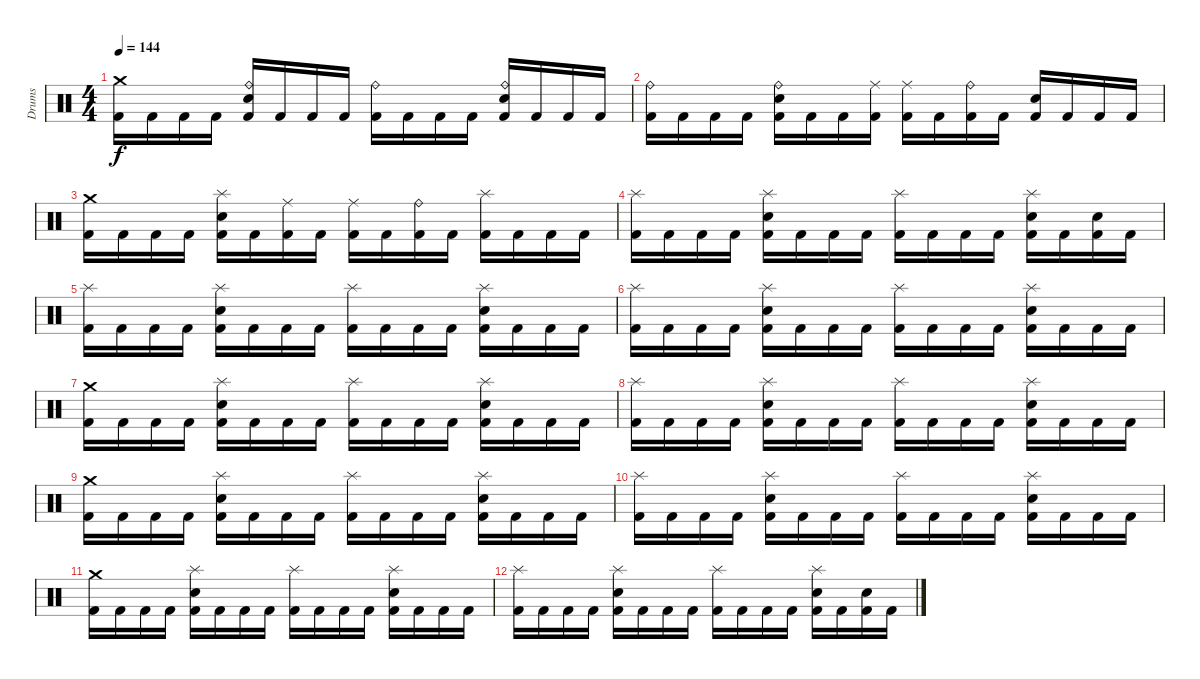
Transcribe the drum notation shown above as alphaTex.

\track ("Drums" "Drums") {instrument percussion}
\staff {score}
\articulation defaults
\ts (4 4)
\tempo 144
\clef neutral
\ks c
("Crash medium (hit)" "Kick (hit) 2").16{dy f} "Kick (hit) 2".16 "Kick (hit) 2".16 "Kick (hit) 2".16 ("Ride (bell)" "Snare (hit) 2" "Kick (hit) 2").16 "Kick (hit) 2".16 "Kick (hit) 2".16 "Kick (hit) 2".16 ("Ride (bell)" "Kick (hit) 2").16 "Kick (hit) 2".16 "Kick (hit) 2".16 "Kick (hit) 2".16 ("Ride (bell)" "Snare (hit) 2" "Kick (hit) 2").16 "Kick (hit) 2".16 "Kick (hit) 2".16 "Kick (hit) 2".16 |
("Ride (bell)" "Kick (hit) 2").16 "Kick (hit) 2".16 "Kick (hit) 2".16 "Kick (hit) 2".16 ("Ride (bell)" "Snare (hit) 2" "Kick (hit) 2").16 "Kick (hit) 2".16 "Kick (hit) 2".16 ("Ride (middle)" "Kick (hit) 2").16 ("Ride (middle)" "Kick (hit) 2").16 "Kick (hit) 2".16 ("Ride (bell)" "Kick (hit) 2").16 "Kick (hit) 2".16 ("Snare (hit) 2" "Kick (hit) 2").16 "Kick (hit) 2".16 "Kick (hit) 2".16 "Kick (hit) 2".16 |
("Crash medium (hit)" "Kick (hit) 2").16 "Kick (hit) 2".16 "Kick (hit) 2".16 "Kick (hit) 2".16 ("Splash (hit)" "Snare (hit) 2" "Kick (hit) 2").16 "Kick (hit) 2".16 ("Ride (middle)" "Kick (hit) 2").16 "Kick (hit) 2".16 ("Ride (middle)" "Kick (hit) 2").16 "Kick (hit) 2".16 ("Ride (bell)" "Kick (hit) 2").16 "Kick (hit) 2".16 ("Splash (hit)" "Kick (hit) 2").16 "Kick (hit) 2".16 "Kick (hit) 2".16 "Kick (hit) 2".16 |
("Splash (hit)" "Kick (hit) 2").16 "Kick (hit) 2".16 "Kick (hit) 2".16 "Kick (hit) 2".16 ("Splash (hit)" "Snare (hit) 2" "Kick (hit) 2").16 "Kick (hit) 2".16 "Kick (hit) 2".16 "Kick (hit) 2".16 ("Splash (hit)" "Kick (hit) 2").16 "Kick (hit) 2".16 "Kick (hit) 2".16 "Kick (hit) 2".16 ("Splash (hit)" "Snare (hit) 2" "Kick (hit) 2").16 "Kick (hit) 2".16 ("Snare (hit) 2" "Kick (hit) 2").16 "Kick (hit) 2".16 |
("Splash (hit)" "Kick (hit) 2").16 "Kick (hit) 2".16 "Kick (hit) 2".16 "Kick (hit) 2".16 ("Splash (hit)" "Snare (hit) 2" "Kick (hit) 2").16 "Kick (hit) 2".16 "Kick (hit) 2".16 "Kick (hit) 2".16 ("Splash (hit)" "Kick (hit) 2").16 "Kick (hit) 2".16 "Kick (hit) 2".16 "Kick (hit) 2".16 ("Splash (hit)" "Snare (hit) 2" "Kick (hit) 2").16 "Kick (hit) 2".16 "Kick (hit) 2".16 "Kick (hit) 2".16 |
("Splash (hit)" "Kick (hit) 2").16 "Kick (hit) 2".16 "Kick (hit) 2".16 "Kick (hit) 2".16 ("Splash (hit)" "Snare (hit) 2" "Kick (hit) 2").16 "Kick (hit) 2".16 "Kick (hit) 2".16 "Kick (hit) 2".16 ("Splash (hit)" "Kick (hit) 2").16 "Kick (hit) 2".16 "Kick (hit) 2".16 "Kick (hit) 2".16 ("Splash (hit)" "Snare (hit) 2" "Kick (hit) 2").16 "Kick (hit) 2".16 "Kick (hit) 2".16 "Kick (hit) 2".16 |
("Crash medium (hit)" "Kick (hit) 2").16 "Kick (hit) 2".16 "Kick (hit) 2".16 "Kick (hit) 2".16 ("Splash (hit)" "Snare (hit) 2" "Kick (hit) 2").16 "Kick (hit) 2".16 "Kick (hit) 2".16 "Kick (hit) 2".16 ("Splash (hit)" "Kick (hit) 2").16 "Kick (hit) 2".16 "Kick (hit) 2".16 "Kick (hit) 2".16 ("Splash (hit)" "Snare (hit) 2" "Kick (hit) 2").16 "Kick (hit) 2".16 "Kick (hit) 2".16 "Kick (hit) 2".16 |
("Splash (hit)" "Kick (hit) 2").16 "Kick (hit) 2".16 "Kick (hit) 2".16 "Kick (hit) 2".16 ("Splash (hit)" "Snare (hit) 2" "Kick (hit) 2").16 "Kick (hit) 2".16 "Kick (hit) 2".16 "Kick (hit) 2".16 ("Splash (hit)" "Kick (hit) 2").16 "Kick (hit) 2".16 "Kick (hit) 2".16 "Kick (hit) 2".16 ("Splash (hit)" "Snare (hit) 2" "Kick (hit) 2").16 "Kick (hit) 2".16 "Kick (hit) 2".16 "Kick (hit) 2".16 |
("Crash medium (hit)" "Kick (hit) 2").16 "Kick (hit) 2".16 "Kick (hit) 2".16 "Kick (hit) 2".16 ("Splash (hit)" "Snare (hit) 2" "Kick (hit) 2").16 "Kick (hit) 2".16 "Kick (hit) 2".16 "Kick (hit) 2".16 ("Splash (hit)" "Kick (hit) 2").16 "Kick (hit) 2".16 "Kick (hit) 2".16 "Kick (hit) 2".16 ("Splash (hit)" "Snare (hit) 2" "Kick (hit) 2").16 "Kick (hit) 2".16 "Kick (hit) 2".16 "Kick (hit) 2".16 |
("Splash (hit)" "Kick (hit) 2").16 "Kick (hit) 2".16 "Kick (hit) 2".16 "Kick (hit) 2".16 ("Splash (hit)" "Snare (hit) 2" "Kick (hit) 2").16 "Kick (hit) 2".16 "Kick (hit) 2".16 "Kick (hit) 2".16 ("Splash (hit)" "Kick (hit) 2").16 "Kick (hit) 2".16 "Kick (hit) 2".16 "Kick (hit) 2".16 ("Splash (hit)" "Snare (hit) 2" "Kick (hit) 2").16 "Kick (hit) 2".16 "Kick (hit) 2".16 "Kick (hit) 2".16 |
("Crash medium (hit)" "Kick (hit) 2").16 "Kick (hit) 2".16 "Kick (hit) 2".16 "Kick (hit) 2".16 ("Splash (hit)" "Snare (hit) 2" "Kick (hit) 2").16 "Kick (hit) 2".16 "Kick (hit) 2".16 "Kick (hit) 2".16 ("Splash (hit)" "Kick (hit) 2").16 "Kick (hit) 2".16 "Kick (hit) 2".16 "Kick (hit) 2".16 ("Splash (hit)" "Snare (hit) 2" "Kick (hit) 2").16 "Kick (hit) 2".16 "Kick (hit) 2".16 "Kick (hit) 2".16 |
("Splash (hit)" "Kick (hit) 2").16 "Kick (hit) 2".16 "Kick (hit) 2".16 "Kick (hit) 2".16 ("Splash (hit)" "Snare (hit) 2" "Kick (hit) 2").16 "Kick (hit) 2".16 "Kick (hit) 2".16 "Kick (hit) 2".16 ("Splash (hit)" "Kick (hit) 2").16 "Kick (hit) 2".16 "Kick (hit) 2".16 "Kick (hit) 2".16 ("Splash (hit)" "Snare (hit) 2" "Kick (hit) 2").16 "Kick (hit) 2".16 ("Snare (hit) 2" "Kick (hit) 2").16 "Kick (hit) 2".16
